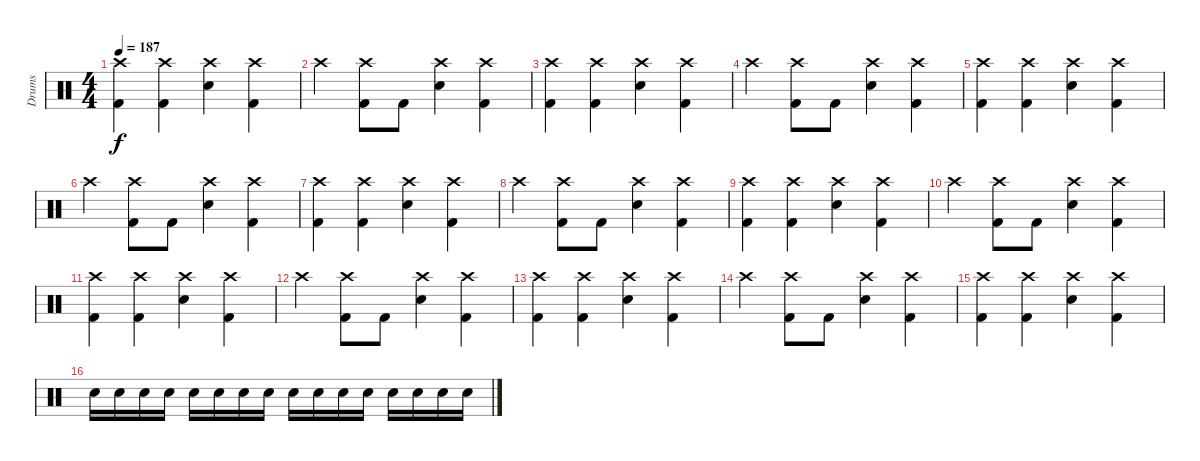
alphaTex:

\track ("Drums" "Drums") {instrument percussion}
\staff {score}
\articulation defaults
\ts (4 4)
\tempo 187
\clef neutral
\ks c
("Crash high (hit)" "Kick (hit) 2").4{dy f} ("Crash high (hit)" "Kick (hit) 2").4 ("Crash high (hit)" "Electric Snare (hit)").4 ("Crash high (hit)" "Kick (hit) 2").4 |
"Crash high (hit)".4 ("Crash high (hit)" "Kick (hit) 2").8 "Kick (hit) 2".8 ("Crash high (hit)" "Electric Snare (hit)").4 ("Crash high (hit)" "Kick (hit) 2").4 |
("Crash high (hit)" "Kick (hit) 2").4 ("Crash high (hit)" "Kick (hit) 2").4 ("Crash high (hit)" "Electric Snare (hit)").4 ("Crash high (hit)" "Kick (hit) 2").4 |
"Crash high (hit)".4 ("Crash high (hit)" "Kick (hit) 2").8 "Kick (hit) 2".8 ("Crash high (hit)" "Electric Snare (hit)").4 ("Crash high (hit)" "Kick (hit) 2").4 |
("Crash high (hit)" "Kick (hit) 2").4 ("Crash high (hit)" "Kick (hit) 2").4 ("Crash high (hit)" "Electric Snare (hit)").4 ("Crash high (hit)" "Kick (hit) 2").4 |
"Crash high (hit)".4 ("Crash high (hit)" "Kick (hit) 2").8 "Kick (hit) 2".8 ("Crash high (hit)" "Electric Snare (hit)").4 ("Crash high (hit)" "Kick (hit) 2").4 |
("Crash high (hit)" "Kick (hit) 2").4 ("Crash high (hit)" "Kick (hit) 2").4 ("Crash high (hit)" "Electric Snare (hit)").4 ("Crash high (hit)" "Kick (hit) 2").4 |
"Crash high (hit)".4 ("Crash high (hit)" "Kick (hit) 2").8 "Kick (hit) 2".8 ("Crash high (hit)" "Electric Snare (hit)").4 ("Crash high (hit)" "Kick (hit) 2").4 |
("Crash high (hit)" "Kick (hit) 2").4 ("Crash high (hit)" "Kick (hit) 2").4 ("Crash high (hit)" "Electric Snare (hit)").4 ("Crash high (hit)" "Kick (hit) 2").4 |
"Crash high (hit)".4 ("Crash high (hit)" "Kick (hit) 2").8 "Kick (hit) 2".8 ("Crash high (hit)" "Electric Snare (hit)").4 ("Crash high (hit)" "Kick (hit) 2").4 |
("Crash high (hit)" "Kick (hit) 2").4 ("Crash high (hit)" "Kick (hit) 2").4 ("Crash high (hit)" "Electric Snare (hit)").4 ("Crash high (hit)" "Kick (hit) 2").4 |
"Crash high (hit)".4 ("Crash high (hit)" "Kick (hit) 2").8 "Kick (hit) 2".8 ("Crash high (hit)" "Electric Snare (hit)").4 ("Crash high (hit)" "Kick (hit) 2").4 |
("Crash high (hit)" "Kick (hit) 2").4 ("Crash high (hit)" "Kick (hit) 2").4 ("Crash high (hit)" "Electric Snare (hit)").4 ("Crash high (hit)" "Kick (hit) 2").4 |
"Crash high (hit)".4 ("Crash high (hit)" "Kick (hit) 2").8 "Kick (hit) 2".8 ("Crash high (hit)" "Electric Snare (hit)").4 ("Crash high (hit)" "Kick (hit) 2").4 |
("Crash high (hit)" "Kick (hit) 2").4 ("Crash high (hit)" "Kick (hit) 2").4 ("Crash high (hit)" "Electric Snare (hit)").4 ("Crash high (hit)" "Kick (hit) 2").4 |
"Electric Snare (hit)".16 "Electric Snare (hit)".16 "Electric Snare (hit)".16 "Electric Snare (hit)".16 "Electric Snare (hit)".16 "Electric Snare (hit)".16 "Electric Snare (hit)".16 "Electric Snare (hit)".16 "Electric Snare (hit)".16 "Electric Snare (hit)".16 "Electric Snare (hit)".16 "Electric Snare (hit)".16 "Electric Snare (hit)".16 "Electric Snare (hit)".16 "Electric Snare (hit)".16 "Electric Snare (hit)".16
